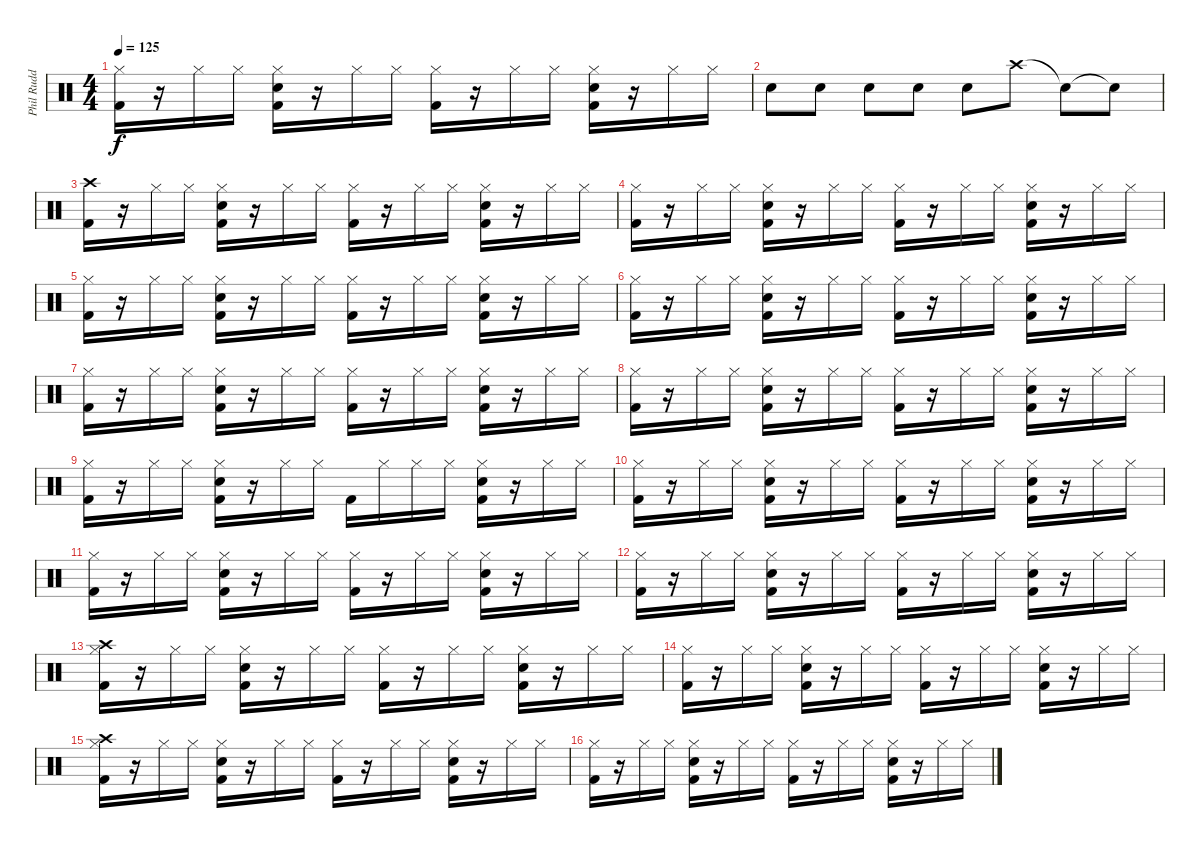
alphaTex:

\track ("Phil Rudd" "Phil Rudd") {instrument percussion}
\staff {score}
\articulation defaults
\ts (4 4)
\tempo 125
\clef neutral
\ks c
("Hi-Hat (closed)" "Kick (hit) 2").16{dy f} r.16 "Hi-Hat (closed)".16 "Hi-Hat (closed)".16 ("Hi-Hat (closed)" "Snare (hit) 2" "Kick (hit) 2").16 r.16 "Hi-Hat (closed)".16 "Hi-Hat (closed)".16 ("Hi-Hat (closed)" "Kick (hit) 2").16 r.16 "Hi-Hat (closed)".16 "Hi-Hat (closed)".16 ("Hi-Hat (closed)" "Snare (hit) 2" "Kick (hit) 2").16 r.16 "Hi-Hat (closed)".16 "Hi-Hat (closed)".16 |
"Snare (hit) 2".8 "Snare (hit) 2".8 "Snare (hit) 2".8 "Snare (hit) 2".8 "Snare (hit) 2".8 "Crash high (hit)".8 "Snare (hit)"{t}.8 "Snare (hit)"{t}.8 |
("Crash high (hit)" "Kick (hit) 2").16 r.16 "Hi-Hat (closed)".16 "Hi-Hat (closed)".16 ("Hi-Hat (closed)" "Snare (hit) 2" "Kick (hit) 2").16 r.16 "Hi-Hat (closed)".16 "Hi-Hat (closed)".16 ("Hi-Hat (closed)" "Kick (hit) 2").16 r.16 "Hi-Hat (closed)".16 "Hi-Hat (closed)".16 ("Hi-Hat (closed)" "Snare (hit) 2" "Kick (hit) 2").16 r.16 "Hi-Hat (closed)".16 "Hi-Hat (closed)".16 |
("Hi-Hat (closed)" "Kick (hit) 2").16 r.16 "Hi-Hat (closed)".16 "Hi-Hat (closed)".16 ("Hi-Hat (closed)" "Snare (hit) 2" "Kick (hit) 2").16 r.16 "Hi-Hat (closed)".16 "Hi-Hat (closed)".16 ("Hi-Hat (closed)" "Kick (hit) 2").16 r.16 "Hi-Hat (closed)".16 "Hi-Hat (closed)".16 ("Hi-Hat (closed)" "Snare (hit) 2" "Kick (hit) 2").16 r.16 "Hi-Hat (closed)".16 "Hi-Hat (closed)".16 |
("Hi-Hat (closed)" "Kick (hit) 2").16 r.16 "Hi-Hat (closed)".16 "Hi-Hat (closed)".16 ("Hi-Hat (closed)" "Snare (hit) 2" "Kick (hit) 2").16 r.16 "Hi-Hat (closed)".16 "Hi-Hat (closed)".16 ("Hi-Hat (closed)" "Kick (hit) 2").16 r.16 "Hi-Hat (closed)".16 "Hi-Hat (closed)".16 ("Hi-Hat (closed)" "Snare (hit) 2" "Kick (hit) 2").16 r.16 "Hi-Hat (closed)".16 "Hi-Hat (closed)".16 |
("Hi-Hat (closed)" "Kick (hit) 2").16 r.16 "Hi-Hat (closed)".16 "Hi-Hat (closed)".16 ("Hi-Hat (closed)" "Snare (hit) 2" "Kick (hit) 2").16 r.16 "Hi-Hat (closed)".16 "Hi-Hat (closed)".16 ("Hi-Hat (closed)" "Kick (hit) 2").16 r.16 "Hi-Hat (closed)".16 "Hi-Hat (closed)".16 ("Hi-Hat (closed)" "Snare (hit) 2" "Kick (hit) 2").16 r.16 "Hi-Hat (closed)".16 "Hi-Hat (closed)".16 |
("Hi-Hat (closed)" "Kick (hit) 2").16 r.16 "Hi-Hat (closed)".16 "Hi-Hat (closed)".16 ("Hi-Hat (closed)" "Snare (hit) 2" "Kick (hit) 2").16 r.16 "Hi-Hat (closed)".16 "Hi-Hat (closed)".16 ("Hi-Hat (closed)" "Kick (hit) 2").16 r.16 "Hi-Hat (closed)".16 "Hi-Hat (closed)".16 ("Hi-Hat (closed)" "Snare (hit) 2" "Kick (hit) 2").16 r.16 "Hi-Hat (closed)".16 "Hi-Hat (closed)".16 |
("Hi-Hat (closed)" "Kick (hit) 2").16 r.16 "Hi-Hat (closed)".16 "Hi-Hat (closed)".16 ("Hi-Hat (closed)" "Snare (hit) 2" "Kick (hit) 2").16 r.16 "Hi-Hat (closed)".16 "Hi-Hat (closed)".16 ("Hi-Hat (closed)" "Kick (hit) 2").16 r.16 "Hi-Hat (closed)".16 "Hi-Hat (closed)".16 ("Hi-Hat (closed)" "Snare (hit) 2" "Kick (hit) 2").16 r.16 "Hi-Hat (closed)".16 "Hi-Hat (closed)".16 |
("Hi-Hat (closed)" "Kick (hit) 2").16 r.16 "Hi-Hat (closed)".16 "Hi-Hat (closed)".16 ("Hi-Hat (closed)" "Snare (hit) 2" "Kick (hit) 2").16 r.16 "Hi-Hat (closed)".16 "Hi-Hat (closed)".16 "Kick (hit) 2".16 "Hi-Hat (closed)".16 "Hi-Hat (closed)".16 "Hi-Hat (closed)".16 ("Hi-Hat (closed)" "Snare (hit) 2" "Kick (hit) 2").16 r.16 "Hi-Hat (closed)".16 "Hi-Hat (closed)".16 |
("Hi-Hat (closed)" "Kick (hit) 2").16 r.16 "Hi-Hat (closed)".16 "Hi-Hat (closed)".16 ("Hi-Hat (closed)" "Snare (hit) 2" "Kick (hit) 2").16 r.16 "Hi-Hat (closed)".16 "Hi-Hat (closed)".16 ("Hi-Hat (closed)" "Kick (hit) 2").16 r.16 "Hi-Hat (closed)".16 "Hi-Hat (closed)".16 ("Hi-Hat (closed)" "Snare (hit) 2" "Kick (hit) 2").16 r.16 "Hi-Hat (closed)".16 "Hi-Hat (closed)".16 |
("Hi-Hat (closed)" "Kick (hit) 2").16 r.16 "Hi-Hat (closed)".16 "Hi-Hat (closed)".16 ("Hi-Hat (closed)" "Snare (hit) 2" "Kick (hit) 2").16 r.16 "Hi-Hat (closed)".16 "Hi-Hat (closed)".16 ("Hi-Hat (closed)" "Kick (hit) 2").16 r.16 "Hi-Hat (closed)".16 "Hi-Hat (closed)".16 ("Hi-Hat (closed)" "Snare (hit) 2" "Kick (hit) 2").16 r.16 "Hi-Hat (closed)".16 "Hi-Hat (closed)".16 |
("Hi-Hat (closed)" "Kick (hit) 2").16 r.16 "Hi-Hat (closed)".16 "Hi-Hat (closed)".16 ("Hi-Hat (closed)" "Snare (hit) 2" "Kick (hit) 2").16 r.16 "Hi-Hat (closed)".16 "Hi-Hat (closed)".16 ("Hi-Hat (closed)" "Kick (hit) 2").16 r.16 "Hi-Hat (closed)".16 "Hi-Hat (closed)".16 ("Hi-Hat (closed)" "Snare (hit) 2" "Kick (hit) 2").16 r.16 "Hi-Hat (closed)".16 "Hi-Hat (closed)".16 |
("Hi-Hat (closed)" "Crash high (hit)" "Kick (hit) 2").16 r.16 "Hi-Hat (closed)".16 "Hi-Hat (closed)".16 ("Hi-Hat (closed)" "Snare (hit) 2" "Kick (hit) 2").16 r.16 "Hi-Hat (closed)".16 "Hi-Hat (closed)".16 ("Hi-Hat (closed)" "Kick (hit) 2").16 r.16 "Hi-Hat (closed)".16 "Hi-Hat (closed)".16 ("Hi-Hat (closed)" "Snare (hit) 2" "Kick (hit) 2").16 r.16 "Hi-Hat (closed)".16 "Hi-Hat (closed)".16 |
("Hi-Hat (closed)" "Kick (hit) 2").16 r.16 "Hi-Hat (closed)".16 "Hi-Hat (closed)".16 ("Hi-Hat (closed)" "Snare (hit) 2" "Kick (hit) 2").16 r.16 "Hi-Hat (closed)".16 "Hi-Hat (closed)".16 ("Hi-Hat (closed)" "Kick (hit) 2").16 r.16 "Hi-Hat (closed)".16 "Hi-Hat (closed)".16 ("Hi-Hat (closed)" "Snare (hit) 2" "Kick (hit) 2").16 r.16 "Hi-Hat (closed)".16 "Hi-Hat (closed)".16 |
("Hi-Hat (closed)" "Crash high (hit)" "Kick (hit) 2").16 r.16 "Hi-Hat (closed)".16 "Hi-Hat (closed)".16 ("Hi-Hat (closed)" "Snare (hit) 2" "Kick (hit) 2").16 r.16 "Hi-Hat (closed)".16 "Hi-Hat (closed)".16 ("Hi-Hat (closed)" "Kick (hit) 2").16 r.16 "Hi-Hat (closed)".16 "Hi-Hat (closed)".16 ("Hi-Hat (closed)" "Snare (hit) 2" "Kick (hit) 2").16 r.16 "Hi-Hat (closed)".16 "Hi-Hat (closed)".16 |
("Hi-Hat (closed)" "Kick (hit) 2").16 r.16 "Hi-Hat (closed)".16 "Hi-Hat (closed)".16 ("Hi-Hat (closed)" "Snare (hit) 2" "Kick (hit) 2").16 r.16 "Hi-Hat (closed)".16 "Hi-Hat (closed)".16 ("Hi-Hat (closed)" "Kick (hit) 2").16 r.16 "Hi-Hat (closed)".16 "Hi-Hat (closed)".16 ("Hi-Hat (closed)" "Snare (hit) 2" "Kick (hit) 2").16 r.16 "Hi-Hat (closed)".16 "Hi-Hat (closed)".16
